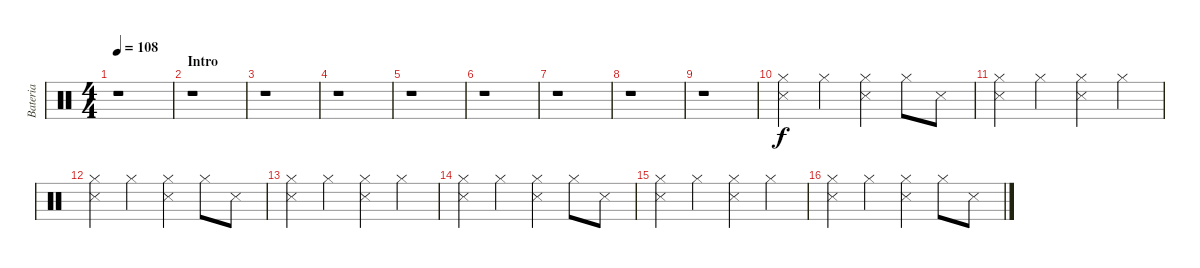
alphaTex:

\track ("Bateria" "Bateria") {instrument percussion}
\staff {score}
\articulation defaults
\ts (4 4)
\tempo 108
\clef neutral
\ks c
r.1{dy f} |
\section ("" "Intro")
r.1 |
r.1 |
r.1 |
r.1 |
r.1 |
r.1 |
r.1 |
r.1 |
("Hi-Hat (closed)" "Snare (side stick) 3").4 "Hi-Hat (closed)".4 ("Snare (side stick) 3" "Hi-Hat (closed)").4 "Hi-Hat (closed)".8 "Snare (side stick) 3".8 |
("Hi-Hat (closed)" "Snare (side stick) 3").4 "Hi-Hat (closed)".4 ("Snare (side stick) 3" "Hi-Hat (closed)").4 "Hi-Hat (closed)".4 |
("Hi-Hat (closed)" "Snare (side stick) 3").4 "Hi-Hat (closed)".4 ("Snare (side stick) 3" "Hi-Hat (closed)").4 "Hi-Hat (closed)".8 "Snare (side stick) 3".8 |
("Hi-Hat (closed)" "Snare (side stick) 3").4 "Hi-Hat (closed)".4 ("Snare (side stick) 3" "Hi-Hat (closed)").4 "Hi-Hat (closed)".4 |
("Hi-Hat (closed)" "Snare (side stick) 3").4 "Hi-Hat (closed)".4 ("Snare (side stick) 3" "Hi-Hat (closed)").4 "Hi-Hat (closed)".8 "Snare (side stick) 3".8 |
("Hi-Hat (closed)" "Snare (side stick) 3").4 "Hi-Hat (closed)".4 ("Snare (side stick) 3" "Hi-Hat (closed)").4 "Hi-Hat (closed)".4 |
("Hi-Hat (closed)" "Snare (side stick) 3").4 "Hi-Hat (closed)".4 ("Snare (side stick) 3" "Hi-Hat (closed)").4 "Hi-Hat (closed)".8 "Snare (side stick) 3".8
